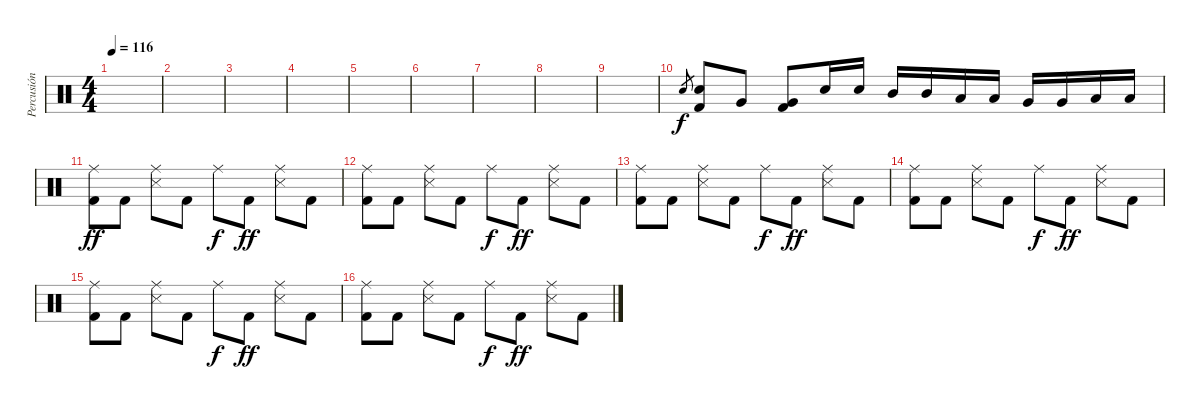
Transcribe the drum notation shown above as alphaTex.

\track ("Percusión" "Percusión") {instrument percussion}
\staff {score}
\articulation defaults
\ts (4 4)
\tempo 116
\clef neutral
\ks c
|
|
|
|
|
|
|
|
|
"Snare (hit) 2".8{gr} ("Snare (hit) 2" "Kick (hit) 2").8 "Very Low Tom (hit)".8 ("Very Low Tom (hit)" "Kick (hit) 2").8 "Snare (hit) 2".16 "Snare (hit) 2".16 "Mid Tom (hit)".16 "Mid Tom (hit)".16 "Low Tom (hit)".16 "Low Tom (hit)".16 "Very Low Tom (hit)".16 "Very Low Tom (hit)".16 "Low Floor Tom (hit)".16 "Low Floor Tom (hit)".16 |
("Ride (middle)" "Kick (hit) 2").8{dy ff} "Kick (hit) 2".8 ("Ride (middle)" "Snare (side stick) 3").8 "Kick (hit) 2".8 "Ride (middle)".8{dy f} "Kick (hit) 2".8{dy ff} ("Ride (middle)" "Snare (side stick) 3").8 "Kick (hit) 2".8 |
("Ride (middle)" "Kick (hit) 2").8 "Kick (hit) 2".8 ("Ride (middle)" "Snare (side stick) 3").8 "Kick (hit) 2".8 "Ride (middle)".8{dy f} "Kick (hit) 2".8{dy ff} ("Ride (middle)" "Snare (side stick) 3").8 "Kick (hit) 2".8 |
("Ride (middle)" "Kick (hit) 2").8 "Kick (hit) 2".8 ("Ride (middle)" "Snare (side stick) 3").8 "Kick (hit) 2".8 "Ride (middle)".8{dy f} "Kick (hit) 2".8{dy ff} ("Ride (middle)" "Snare (side stick) 3").8 "Kick (hit) 2".8 |
("Ride (middle)" "Kick (hit) 2").8 "Kick (hit) 2".8 ("Ride (middle)" "Snare (side stick) 3").8 "Kick (hit) 2".8 "Ride (middle)".8{dy f} "Kick (hit) 2".8{dy ff} ("Ride (middle)" "Snare (side stick) 3").8 "Kick (hit) 2".8 |
("Ride (middle)" "Kick (hit) 2").8 "Kick (hit) 2".8 ("Ride (middle)" "Snare (side stick) 3").8 "Kick (hit) 2".8 "Ride (middle)".8{dy f} "Kick (hit) 2".8{dy ff} ("Ride (middle)" "Snare (side stick) 3").8 "Kick (hit) 2".8 |
("Ride (middle)" "Kick (hit) 2").8 "Kick (hit) 2".8 ("Ride (middle)" "Snare (side stick) 3").8 "Kick (hit) 2".8 "Ride (middle)".8{dy f} "Kick (hit) 2".8{dy ff} ("Ride (middle)" "Snare (side stick) 3").8 "Kick (hit) 2".8
